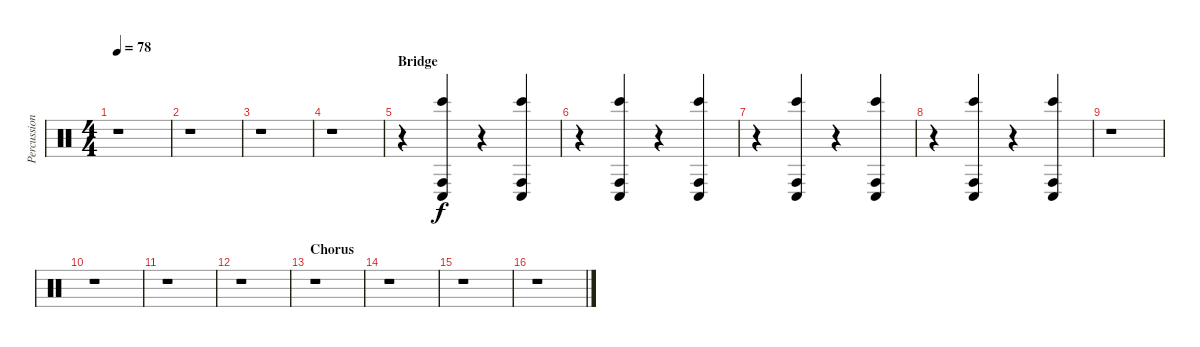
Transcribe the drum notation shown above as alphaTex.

\track ("Percussion/SFX" "Percussion") {instrument percussion}
\staff {score}
\articulation defaults
\ts (4 4)
\tempo 78
\clef neutral
\ks c
r.1{dy f} |
r.1 |
r.1 |
r.1 |
\section ("" "Bridge")
r.4 ("Conga low (hit)" "Bongo High (hit)" "Conga high (hit)").4 r.4 ("Conga low (hit)" "Bongo High (hit)" "Conga high (hit)").4 |
r.4 ("Conga low (hit)" "Bongo High (hit)" "Conga high (hit)").4 r.4 ("Conga low (hit)" "Bongo High (hit)" "Conga high (hit)").4 |
r.4 ("Conga low (hit)" "Bongo High (hit)" "Conga high (hit)").4 r.4 ("Conga low (hit)" "Bongo High (hit)" "Conga high (hit)").4 |
r.4 ("Conga low (hit)" "Bongo High (hit)" "Conga high (hit)").4 r.4 ("Conga low (hit)" "Bongo High (hit)" "Conga high (hit)").4 |
r.1 |
r.1 |
r.1 |
r.1 |
\section ("" "Chorus")
r.1 |
r.1 |
r.1 |
r.1
